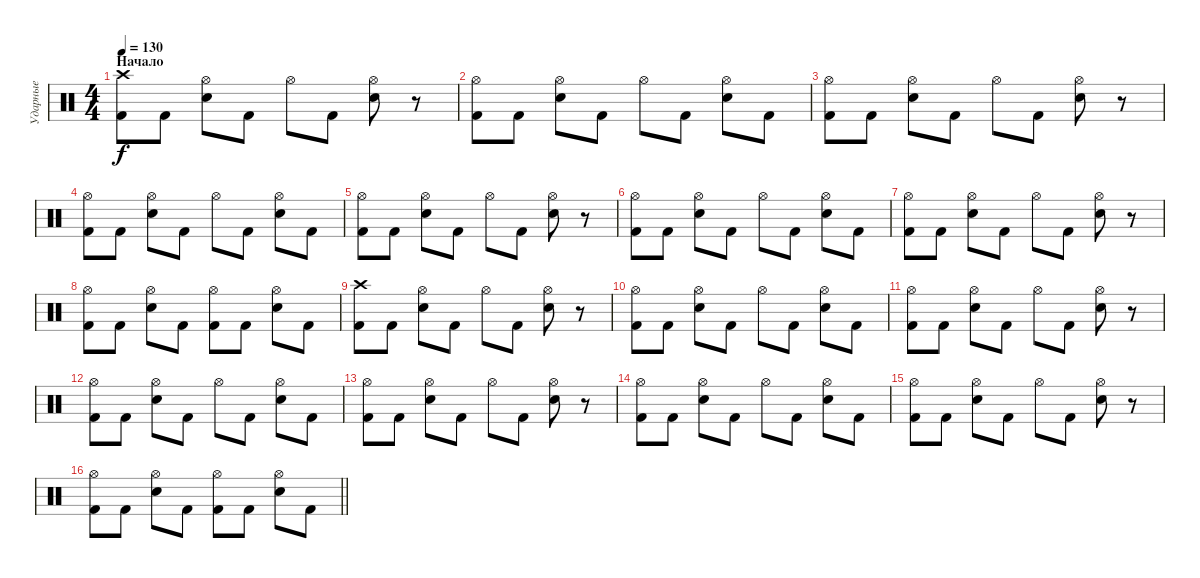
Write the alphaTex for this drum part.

\track ("Ударные" "Ударные") {instrument percussion}
\staff {score}
\articulation defaults
\ts (4 4)
\section ("" "Начало")
\tempo 130
\clef neutral
\ks c
("Crash high (hit)" "Kick (hit) 2").8{dy f} "Kick (hit) 2".8 ("Hi-Hat (open)" "Snare (hit) 2").8 "Kick (hit) 2".8 "Hi-Hat (open)".8 "Kick (hit) 2".8 ("Hi-Hat (open)" "Snare (hit) 2").8 r.8 |
("Hi-Hat (open)" "Kick (hit) 2").8 "Kick (hit) 2".8 ("Hi-Hat (open)" "Snare (hit) 2").8 "Kick (hit) 2".8 "Hi-Hat (open)".8 "Kick (hit) 2".8 ("Hi-Hat (open)" "Snare (hit) 2").8 "Kick (hit) 2".8 |
("Hi-Hat (open)" "Kick (hit) 2").8 "Kick (hit) 2".8 ("Hi-Hat (open)" "Snare (hit) 2").8 "Kick (hit) 2".8 "Hi-Hat (open)".8 "Kick (hit) 2".8 ("Hi-Hat (open)" "Snare (hit) 2").8 r.8 |
("Hi-Hat (open)" "Kick (hit) 2").8 "Kick (hit) 2".8 ("Hi-Hat (open)" "Snare (hit) 2").8 "Kick (hit) 2".8 "Hi-Hat (open)".8 "Kick (hit) 2".8 ("Hi-Hat (open)" "Snare (hit) 2").8 "Kick (hit) 2".8 |
("Hi-Hat (open)" "Kick (hit) 2").8 "Kick (hit) 2".8 ("Hi-Hat (open)" "Snare (hit) 2").8 "Kick (hit) 2".8 "Hi-Hat (open)".8 "Kick (hit) 2".8 ("Hi-Hat (open)" "Snare (hit) 2").8 r.8 |
("Hi-Hat (open)" "Kick (hit) 2").8 "Kick (hit) 2".8 ("Hi-Hat (open)" "Snare (hit) 2").8 "Kick (hit) 2".8 "Hi-Hat (open)".8 "Kick (hit) 2".8 ("Hi-Hat (open)" "Snare (hit) 2").8 "Kick (hit) 2".8 |
("Hi-Hat (open)" "Kick (hit) 2").8 "Kick (hit) 2".8 ("Hi-Hat (open)" "Snare (hit) 2").8 "Kick (hit) 2".8 "Hi-Hat (open)".8 "Kick (hit) 2".8 ("Hi-Hat (open)" "Snare (hit) 2").8 r.8 |
("Hi-Hat (open)" "Kick (hit) 2").8 "Kick (hit) 2".8 ("Hi-Hat (open)" "Snare (hit) 2").8 "Kick (hit) 2".8 ("Hi-Hat (open)" "Kick (hit) 2").8 "Kick (hit) 2".8 ("Hi-Hat (open)" "Snare (hit) 2").8 "Kick (hit) 2".8 |
("Crash high (hit)" "Kick (hit) 2").8 "Kick (hit) 2".8 ("Hi-Hat (open)" "Snare (hit) 2").8 "Kick (hit) 2".8 "Hi-Hat (open)".8 "Kick (hit) 2".8 ("Hi-Hat (open)" "Snare (hit) 2").8 r.8 |
("Hi-Hat (open)" "Kick (hit) 2").8 "Kick (hit) 2".8 ("Hi-Hat (open)" "Snare (hit) 2").8 "Kick (hit) 2".8 "Hi-Hat (open)".8 "Kick (hit) 2".8 ("Hi-Hat (open)" "Snare (hit) 2").8 "Kick (hit) 2".8 |
("Hi-Hat (open)" "Kick (hit) 2").8 "Kick (hit) 2".8 ("Hi-Hat (open)" "Snare (hit) 2").8 "Kick (hit) 2".8 "Hi-Hat (open)".8 "Kick (hit) 2".8 ("Hi-Hat (open)" "Snare (hit) 2").8 r.8 |
("Hi-Hat (open)" "Kick (hit) 2").8 "Kick (hit) 2".8 ("Hi-Hat (open)" "Snare (hit) 2").8 "Kick (hit) 2".8 "Hi-Hat (open)".8 "Kick (hit) 2".8 ("Hi-Hat (open)" "Snare (hit) 2").8 "Kick (hit) 2".8 |
("Hi-Hat (open)" "Kick (hit) 2").8 "Kick (hit) 2".8 ("Hi-Hat (open)" "Snare (hit) 2").8 "Kick (hit) 2".8 "Hi-Hat (open)".8 "Kick (hit) 2".8 ("Hi-Hat (open)" "Snare (hit) 2").8 r.8 |
("Hi-Hat (open)" "Kick (hit) 2").8 "Kick (hit) 2".8 ("Hi-Hat (open)" "Snare (hit) 2").8 "Kick (hit) 2".8 "Hi-Hat (open)".8 "Kick (hit) 2".8 ("Hi-Hat (open)" "Snare (hit) 2").8 "Kick (hit) 2".8 |
("Hi-Hat (open)" "Kick (hit) 2").8 "Kick (hit) 2".8 ("Hi-Hat (open)" "Snare (hit) 2").8 "Kick (hit) 2".8 "Hi-Hat (open)".8 "Kick (hit) 2".8 ("Hi-Hat (open)" "Snare (hit) 2").8 r.8 |
\barLineRight lightlight
("Hi-Hat (open)" "Kick (hit) 2").8 "Kick (hit) 2".8 ("Hi-Hat (open)" "Snare (hit) 2").8 "Kick (hit) 2".8 ("Hi-Hat (open)" "Kick (hit) 2").8 "Kick (hit) 2".8 ("Hi-Hat (open)" "Snare (hit) 2").8 "Kick (hit) 2".8
